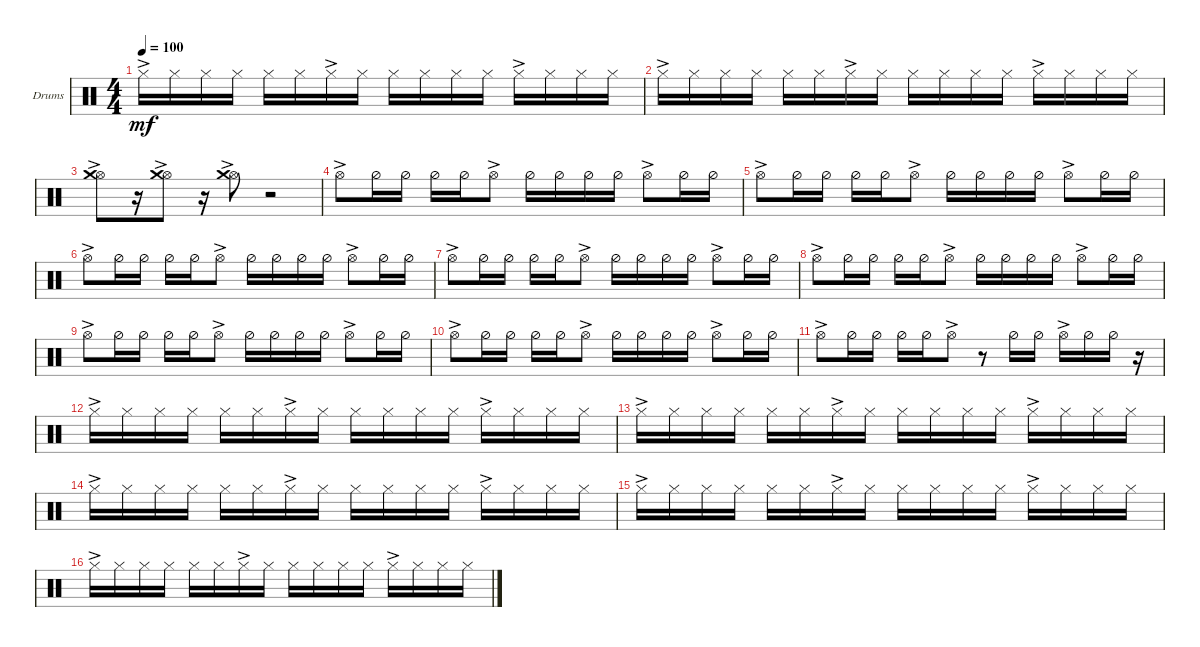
\defaultSystemsLayout 4
\bracketExtendMode groupsimilarinstruments
\firstSystemTrackNameOrientation horizontal
\otherSystemsTrackNameOrientation horizontal
\track ("Drumkit 2" "Drums") {instrument percussion}
\staff {score}
\articulation defaults
\ts (4 4)
\tempo 100
\clef neutral
\ks c "Hi-Hat (closed)"{ac}.16{dy mf} "Hi-Hat (closed)".16 "Hi-Hat (closed)".16 "Hi-Hat (closed)".16 "Hi-Hat (closed)".16 "Hi-Hat (closed)".16 "Hi-Hat (closed)"{ac}.16 "Hi-Hat (closed)".16 "Hi-Hat (closed)".16 "Hi-Hat (closed)".16 "Hi-Hat (closed)".16 "Hi-Hat (closed)".16 "Hi-Hat (closed)"{ac}.16 "Hi-Hat (closed)".16 "Hi-Hat (closed)".16 "Hi-Hat (closed)".16
|
"Hi-Hat (closed)"{ac}.16 "Hi-Hat (closed)".16 "Hi-Hat (closed)".16 "Hi-Hat (closed)".16 "Hi-Hat (closed)".16 "Hi-Hat (closed)".16 "Hi-Hat (closed)"{ac}.16 "Hi-Hat (closed)".16 "Hi-Hat (closed)".16 "Hi-Hat (closed)".16 "Hi-Hat (closed)".16 "Hi-Hat (closed)".16 "Hi-Hat (closed)"{ac}.16 "Hi-Hat (closed)".16 "Hi-Hat (closed)".16 "Hi-Hat (closed)".16 |
("Hi-Hat (open)"{ac} "Crash medium (hit)").8 r.16 ("Hi-Hat (open)"{ac} "Crash medium (hit)").8 r.16 ("Hi-Hat (open)"{ac} "Crash medium (hit)").8 r.2 |
"Hi-Hat (open)"{ac}.8 "Hi-Hat (half)".16 "Hi-Hat (half)".16 "Hi-Hat (half)".16 "Hi-Hat (half)".16 "Hi-Hat (open)"{ac}.8 "Hi-Hat (half)".16 "Hi-Hat (half)".16 "Hi-Hat (half)".16 "Hi-Hat (half)".16 "Hi-Hat (open)"{ac}.8 "Hi-Hat (half)".16 "Hi-Hat (half)".16 |
"Hi-Hat (open)"{ac}.8 "Hi-Hat (half)".16 "Hi-Hat (half)".16 "Hi-Hat (half)".16 "Hi-Hat (half)".16 "Hi-Hat (open)"{ac}.8 "Hi-Hat (half)".16 "Hi-Hat (half)".16 "Hi-Hat (half)".16 "Hi-Hat (half)".16 "Hi-Hat (open)"{ac}.8 "Hi-Hat (half)".16 "Hi-Hat (half)".16 |
"Hi-Hat (open)"{ac}.8 "Hi-Hat (half)".16 "Hi-Hat (half)".16 "Hi-Hat (half)".16 "Hi-Hat (half)".16 "Hi-Hat (open)"{ac}.8 "Hi-Hat (half)".16 "Hi-Hat (half)".16 "Hi-Hat (half)".16 "Hi-Hat (half)".16 "Hi-Hat (open)"{ac}.8 "Hi-Hat (half)".16 "Hi-Hat (half)".16 |
"Hi-Hat (open)"{ac}.8 "Hi-Hat (half)".16 "Hi-Hat (half)".16 "Hi-Hat (half)".16 "Hi-Hat (half)".16 "Hi-Hat (open)"{ac}.8 "Hi-Hat (half)".16 "Hi-Hat (half)".16 "Hi-Hat (half)".16 "Hi-Hat (half)".16 "Hi-Hat (open)"{ac}.8 "Hi-Hat (half)".16 "Hi-Hat (half)".16 |
"Hi-Hat (open)"{ac}.8 "Hi-Hat (half)".16 "Hi-Hat (half)".16 "Hi-Hat (half)".16 "Hi-Hat (half)".16 "Hi-Hat (open)"{ac}.8 "Hi-Hat (half)".16 "Hi-Hat (half)".16 "Hi-Hat (half)".16 "Hi-Hat (half)".16 "Hi-Hat (open)"{ac}.8 "Hi-Hat (half)".16 "Hi-Hat (half)".16 |
"Hi-Hat (open)"{ac}.8 "Hi-Hat (half)".16 "Hi-Hat (half)".16 "Hi-Hat (half)".16 "Hi-Hat (half)".16 "Hi-Hat (open)"{ac}.8 "Hi-Hat (half)".16 "Hi-Hat (half)".16 "Hi-Hat (half)".16 "Hi-Hat (half)".16 "Hi-Hat (open)"{ac}.8 "Hi-Hat (half)".16 "Hi-Hat (half)".16 |
"Hi-Hat (open)"{ac}.8 "Hi-Hat (half)".16 "Hi-Hat (half)".16 "Hi-Hat (half)".16 "Hi-Hat (half)".16 "Hi-Hat (open)"{ac}.8 "Hi-Hat (half)".16 "Hi-Hat (half)".16 "Hi-Hat (half)".16 "Hi-Hat (half)".16 "Hi-Hat (open)"{ac}.8 "Hi-Hat (half)".16 "Hi-Hat (half)".16 |
"Hi-Hat (open)"{ac}.8 "Hi-Hat (half)".16 "Hi-Hat (half)".16 "Hi-Hat (half)".16 "Hi-Hat (half)".16 "Hi-Hat (open)"{ac}.8 r.8 "Hi-Hat (half)".16 "Hi-Hat (half)".16 "Hi-Hat (open)"{ac}.16 "Hi-Hat (half)".16 "Hi-Hat (half)".16 r.16 |
"Hi-Hat (closed)"{ac}.16 "Hi-Hat (closed)".16 "Hi-Hat (closed)".16 "Hi-Hat (closed)".16 "Hi-Hat (closed)".16 "Hi-Hat (closed)".16 "Hi-Hat (closed)"{ac}.16 "Hi-Hat (closed)".16 "Hi-Hat (closed)".16 "Hi-Hat (closed)".16 "Hi-Hat (closed)".16 "Hi-Hat (closed)".16 "Hi-Hat (closed)"{ac}.16 "Hi-Hat (closed)".16 "Hi-Hat (closed)".16 "Hi-Hat (closed)".16 |
"Hi-Hat (closed)"{ac}.16 "Hi-Hat (closed)".16 "Hi-Hat (closed)".16 "Hi-Hat (closed)".16 "Hi-Hat (closed)".16 "Hi-Hat (closed)".16 "Hi-Hat (closed)"{ac}.16 "Hi-Hat (closed)".16 "Hi-Hat (closed)".16 "Hi-Hat (closed)".16 "Hi-Hat (closed)".16 "Hi-Hat (closed)".16 "Hi-Hat (closed)"{ac}.16 "Hi-Hat (closed)".16 "Hi-Hat (closed)".16 "Hi-Hat (closed)".16 |
"Hi-Hat (closed)"{ac}.16 "Hi-Hat (closed)".16 "Hi-Hat (closed)".16 "Hi-Hat (closed)".16 "Hi-Hat (closed)".16 "Hi-Hat (closed)".16 "Hi-Hat (closed)"{ac}.16 "Hi-Hat (closed)".16 "Hi-Hat (closed)".16 "Hi-Hat (closed)".16 "Hi-Hat (closed)".16 "Hi-Hat (closed)".16 "Hi-Hat (closed)"{ac}.16 "Hi-Hat (closed)".16 "Hi-Hat (closed)".16 "Hi-Hat (closed)".16 |
"Hi-Hat (closed)"{ac}.16 "Hi-Hat (closed)".16 "Hi-Hat (closed)".16 "Hi-Hat (closed)".16 "Hi-Hat (closed)".16 "Hi-Hat (closed)".16 "Hi-Hat (closed)"{ac}.16 "Hi-Hat (closed)".16 "Hi-Hat (closed)".16 "Hi-Hat (closed)".16 "Hi-Hat (closed)".16 "Hi-Hat (closed)".16 "Hi-Hat (closed)"{ac}.16 "Hi-Hat (closed)".16 "Hi-Hat (closed)".16 "Hi-Hat (closed)".16 |
"Hi-Hat (closed)"{ac}.16 "Hi-Hat (closed)".16 "Hi-Hat (closed)".16 "Hi-Hat (closed)".16 "Hi-Hat (closed)".16 "Hi-Hat (closed)".16 "Hi-Hat (closed)"{ac}.16 "Hi-Hat (closed)".16 "Hi-Hat (closed)".16 "Hi-Hat (closed)".16 "Hi-Hat (closed)".16 "Hi-Hat (closed)".16 "Hi-Hat (closed)"{ac}.16 "Hi-Hat (closed)".16 "Hi-Hat (closed)".16 "Hi-Hat (closed)".16
